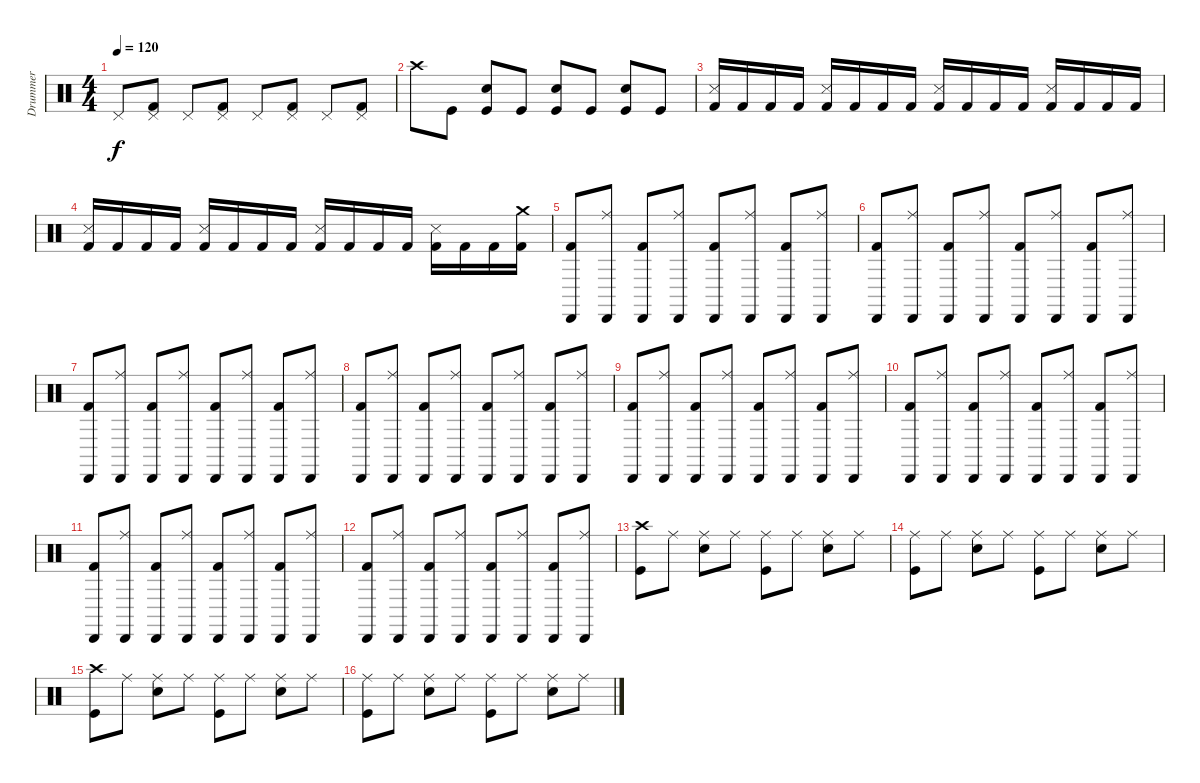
\track ("Drummer" "Drummer") {instrument percussion}
\staff {score}
\articulation defaults
\ts (4 4)
\tempo 120
\clef neutral
\ks c "Pedal Hi-Hat (hit)".8{dy f}
("Pedal Hi-Hat (hit)" "Kick (hit) 2").8 "Pedal Hi-Hat (hit)".8 ("Pedal Hi-Hat (hit)" "Kick (hit) 2").8 "Pedal Hi-Hat (hit)".8 ("Pedal Hi-Hat (hit)" "Kick (hit) 2").8 "Pedal Hi-Hat (hit)".8 ("Pedal Hi-Hat (hit)" "Kick (hit) 2").8 |
"Crash high (hit)".8 "Kick (hit)".8 ("Snare (hit) 2" "Kick (hit)").8 "Kick (hit)".8 ("Snare (hit) 2" "Kick (hit)").8 "Kick (hit)".8 ("Snare (hit) 2" "Kick (hit)").8 "Kick (hit)".8 |
("Snare (side stick) 3" "Kick (hit) 2").16 "Kick (hit) 2".16 "Kick (hit) 2".16 "Kick (hit) 2".16 ("Snare (side stick) 3" "Kick (hit) 2").16 "Kick (hit) 2".16 "Kick (hit) 2".16 "Kick (hit) 2".16 ("Snare (side stick) 3" "Kick (hit) 2").16 "Kick (hit) 2".16 "Kick (hit) 2".16 "Kick (hit) 2".16 ("Snare (side stick) 3" "Kick (hit) 2").16 "Kick (hit) 2".16 "Kick (hit) 2".16 "Kick (hit) 2".16 |
("Snare (side stick) 3" "Kick (hit) 2").16 "Kick (hit) 2".16 "Kick (hit) 2".16 "Kick (hit) 2".16 ("Snare (side stick) 3" "Kick (hit) 2").16 "Kick (hit) 2".16 "Kick (hit) 2".16 "Kick (hit) 2".16 ("Snare (side stick) 3" "Kick (hit) 2").16 "Kick (hit) 2".16 "Kick (hit) 2".16 "Kick (hit) 2".16 ("Snare (side stick) 3" "Kick (hit) 2").16 "Kick (hit) 2".16 "Kick (hit) 2".16 ("Crash medium (hit)" "Kick (hit) 2").16 |
("Kick (hit) 2" "Cabasa (hit)").8 ("Ride (middle)" "Cabasa (hit)").8 ("Kick (hit) 2" "Cabasa (hit)").8 ("Ride (middle)" "Cabasa (hit)").8 ("Kick (hit) 2" "Cabasa (hit)").8 ("Ride (middle)" "Cabasa (hit)").8 ("Kick (hit) 2" "Cabasa (hit)").8 ("Ride (middle)" "Cabasa (hit)").8 |
("Kick (hit) 2" "Cabasa (hit)").8 ("Ride (middle)" "Cabasa (hit)").8 ("Kick (hit) 2" "Cabasa (hit)").8 ("Ride (middle)" "Cabasa (hit)").8 ("Kick (hit) 2" "Cabasa (hit)").8 ("Ride (middle)" "Cabasa (hit)").8 ("Kick (hit) 2" "Cabasa (hit)").8 ("Ride (middle)" "Cabasa (hit)").8 |
("Kick (hit) 2" "Cabasa (hit)").8 ("Ride (middle)" "Cabasa (hit)").8 ("Kick (hit) 2" "Cabasa (hit)").8 ("Ride (middle)" "Cabasa (hit)").8 ("Kick (hit) 2" "Cabasa (hit)").8 ("Ride (middle)" "Cabasa (hit)").8 ("Kick (hit) 2" "Cabasa (hit)").8 ("Ride (middle)" "Cabasa (hit)").8 |
("Kick (hit) 2" "Cabasa (hit)").8 ("Ride (middle)" "Cabasa (hit)").8 ("Kick (hit) 2" "Cabasa (hit)").8 ("Ride (middle)" "Cabasa (hit)").8 ("Kick (hit) 2" "Cabasa (hit)").8 ("Ride (middle)" "Cabasa (hit)").8 ("Kick (hit) 2" "Cabasa (hit)").8 ("Ride (middle)" "Cabasa (hit)").8 |
("Kick (hit) 2" "Cabasa (hit)").8 ("Ride (middle)" "Cabasa (hit)").8 ("Kick (hit) 2" "Cabasa (hit)").8 ("Ride (middle)" "Cabasa (hit)").8 ("Kick (hit) 2" "Cabasa (hit)").8 ("Ride (middle)" "Cabasa (hit)").8 ("Kick (hit) 2" "Cabasa (hit)").8 ("Ride (middle)" "Cabasa (hit)").8 |
("Kick (hit) 2" "Cabasa (hit)").8 ("Ride (middle)" "Cabasa (hit)").8 ("Kick (hit) 2" "Cabasa (hit)").8 ("Ride (middle)" "Cabasa (hit)").8 ("Kick (hit) 2" "Cabasa (hit)").8 ("Ride (middle)" "Cabasa (hit)").8 ("Kick (hit) 2" "Cabasa (hit)").8 ("Ride (middle)" "Cabasa (hit)").8 |
("Kick (hit) 2" "Cabasa (hit)").8 ("Ride (middle)" "Cabasa (hit)").8 ("Kick (hit) 2" "Cabasa (hit)").8 ("Ride (middle)" "Cabasa (hit)").8 ("Kick (hit) 2" "Cabasa (hit)").8 ("Ride (middle)" "Cabasa (hit)").8 ("Kick (hit) 2" "Cabasa (hit)").8 ("Ride (middle)" "Cabasa (hit)").8 |
("Kick (hit) 2" "Cabasa (hit)").8 ("Ride (middle)" "Cabasa (hit)").8 ("Kick (hit) 2" "Cabasa (hit)").8 ("Ride (middle)" "Cabasa (hit)").8 ("Kick (hit) 2" "Cabasa (hit)").8 ("Ride (middle)" "Cabasa (hit)").8 ("Kick (hit) 2" "Cabasa (hit)").8 ("Ride (middle)" "Cabasa (hit)").8 |
("Crash high (hit)" "Kick (hit)").8 "Ride (middle)".8 ("Ride (middle)" "Snare (hit) 2").8 "Ride (middle)".8 ("Ride (middle)" "Kick (hit)").8 "Ride (middle)".8 ("Ride (middle)" "Snare (hit) 2").8 "Ride (middle)".8 |
("Ride (middle)" "Kick (hit)").8 "Ride (middle)".8 ("Ride (middle)" "Snare (hit) 2").8 "Ride (middle)".8 ("Ride (middle)" "Kick (hit)").8 "Ride (middle)".8 ("Ride (middle)" "Snare (hit) 2").8 "Ride (middle)".8 |
("Crash high (hit)" "Kick (hit)").8 "Ride (middle)".8 ("Ride (middle)" "Snare (hit) 2").8 "Ride (middle)".8 ("Ride (middle)" "Kick (hit)").8 "Ride (middle)".8 ("Ride (middle)" "Snare (hit) 2").8 "Ride (middle)".8 |
("Ride (middle)" "Kick (hit)").8 "Ride (middle)".8 ("Ride (middle)" "Snare (hit) 2").8 "Ride (middle)".8 ("Ride (middle)" "Kick (hit)").8 "Ride (middle)".8 ("Ride (middle)" "Snare (hit) 2").8 "Ride (middle)".8
